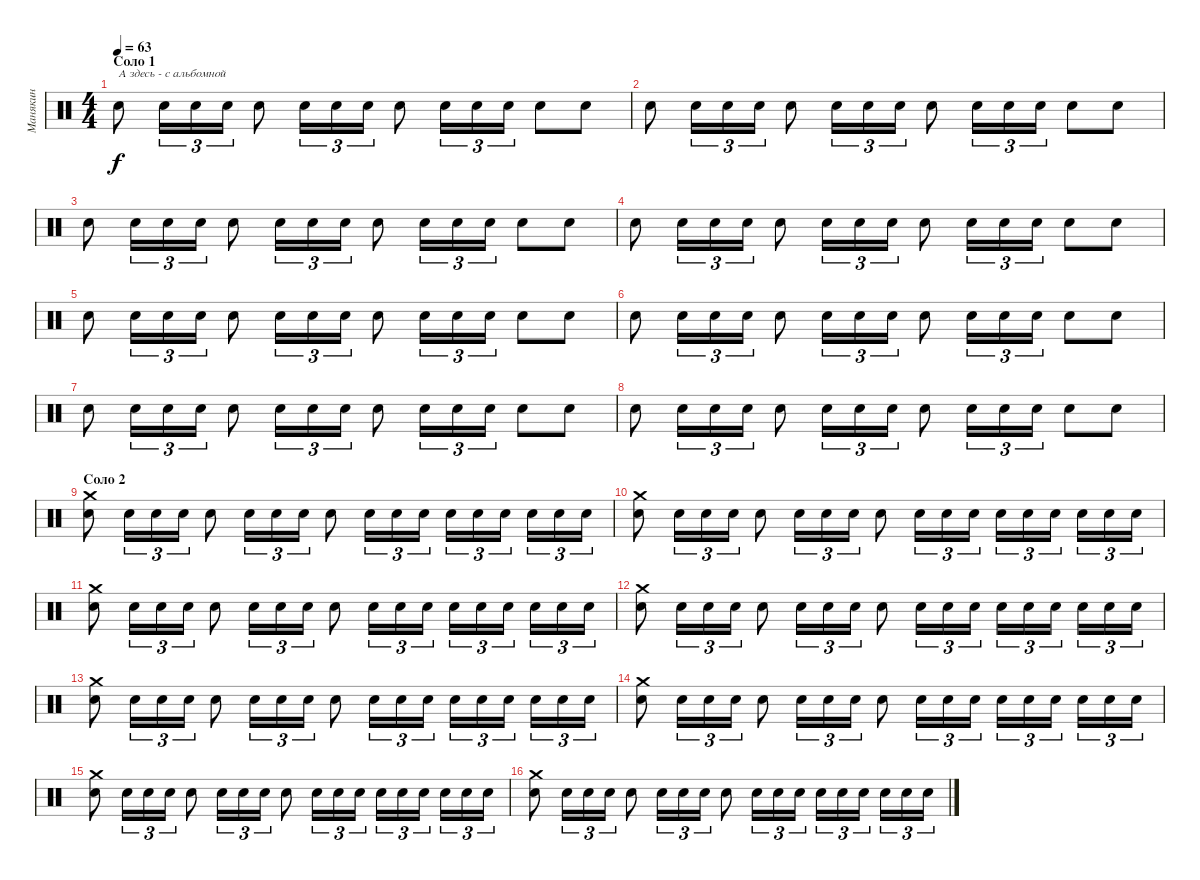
\track ("Манякин" "Манякин") {instrument percussion}
\staff {score}
\articulation defaults
\ts (4 4)
\section ("" "Соло 1")
\tempo 63
\clef neutral
\ks c "Snare (hit) 2".8{txt "А здесь - с альбомной" dy f volume 11} "Snare (hit) 2".16{tu (3 2)} "Snare (hit) 2".16{tu (3 2)} "Snare (hit) 2".16{tu (3 2)} "Snare (hit) 2".8 "Snare (hit) 2".16{tu (3 2)} "Snare (hit) 2".16{tu (3 2)} "Snare (hit) 2".16{tu (3 2)} "Snare (hit) 2".8 "Snare (hit) 2".16{tu (3 2)} "Snare (hit) 2".16{tu (3 2)} "Snare (hit) 2".16{tu (3 2)} "Snare (hit) 2".8 "Snare (hit) 2".8
|
"Snare (hit) 2".8 "Snare (hit) 2".16{tu (3 2)} "Snare (hit) 2".16{tu (3 2)} "Snare (hit) 2".16{tu (3 2)} "Snare (hit) 2".8 "Snare (hit) 2".16{tu (3 2)} "Snare (hit) 2".16{tu (3 2)} "Snare (hit) 2".16{tu (3 2)} "Snare (hit) 2".8 "Snare (hit) 2".16{tu (3 2)} "Snare (hit) 2".16{tu (3 2)} "Snare (hit) 2".16{tu (3 2)} "Snare (hit) 2".8 "Snare (hit) 2".8 |
"Snare (hit) 2".8 "Snare (hit) 2".16{tu (3 2)} "Snare (hit) 2".16{tu (3 2)} "Snare (hit) 2".16{tu (3 2)} "Snare (hit) 2".8 "Snare (hit) 2".16{tu (3 2)} "Snare (hit) 2".16{tu (3 2)} "Snare (hit) 2".16{tu (3 2)} "Snare (hit) 2".8 "Snare (hit) 2".16{tu (3 2)} "Snare (hit) 2".16{tu (3 2)} "Snare (hit) 2".16{tu (3 2)} "Snare (hit) 2".8 "Snare (hit) 2".8 |
"Snare (hit) 2".8 "Snare (hit) 2".16{tu (3 2)} "Snare (hit) 2".16{tu (3 2)} "Snare (hit) 2".16{tu (3 2)} "Snare (hit) 2".8 "Snare (hit) 2".16{tu (3 2)} "Snare (hit) 2".16{tu (3 2)} "Snare (hit) 2".16{tu (3 2)} "Snare (hit) 2".8 "Snare (hit) 2".16{tu (3 2)} "Snare (hit) 2".16{tu (3 2)} "Snare (hit) 2".16{tu (3 2)} "Snare (hit) 2".8 "Snare (hit) 2".8 |
"Snare (hit) 2".8 "Snare (hit) 2".16{tu (3 2)} "Snare (hit) 2".16{tu (3 2)} "Snare (hit) 2".16{tu (3 2)} "Snare (hit) 2".8 "Snare (hit) 2".16{tu (3 2)} "Snare (hit) 2".16{tu (3 2)} "Snare (hit) 2".16{tu (3 2)} "Snare (hit) 2".8 "Snare (hit) 2".16{tu (3 2)} "Snare (hit) 2".16{tu (3 2)} "Snare (hit) 2".16{tu (3 2)} "Snare (hit) 2".8 "Snare (hit) 2".8 |
"Snare (hit) 2".8 "Snare (hit) 2".16{tu (3 2)} "Snare (hit) 2".16{tu (3 2)} "Snare (hit) 2".16{tu (3 2)} "Snare (hit) 2".8 "Snare (hit) 2".16{tu (3 2)} "Snare (hit) 2".16{tu (3 2)} "Snare (hit) 2".16{tu (3 2)} "Snare (hit) 2".8 "Snare (hit) 2".16{tu (3 2)} "Snare (hit) 2".16{tu (3 2)} "Snare (hit) 2".16{tu (3 2)} "Snare (hit) 2".8 "Snare (hit) 2".8 |
"Snare (hit) 2".8 "Snare (hit) 2".16{tu (3 2)} "Snare (hit) 2".16{tu (3 2)} "Snare (hit) 2".16{tu (3 2)} "Snare (hit) 2".8 "Snare (hit) 2".16{tu (3 2)} "Snare (hit) 2".16{tu (3 2)} "Snare (hit) 2".16{tu (3 2)} "Snare (hit) 2".8 "Snare (hit) 2".16{tu (3 2)} "Snare (hit) 2".16{tu (3 2)} "Snare (hit) 2".16{tu (3 2)} "Snare (hit) 2".8 "Snare (hit) 2".8 |
"Snare (hit) 2".8 "Snare (hit) 2".16{tu (3 2)} "Snare (hit) 2".16{tu (3 2)} "Snare (hit) 2".16{tu (3 2)} "Snare (hit) 2".8 "Snare (hit) 2".16{tu (3 2)} "Snare (hit) 2".16{tu (3 2)} "Snare (hit) 2".16{tu (3 2)} "Snare (hit) 2".8 "Snare (hit) 2".16{tu (3 2)} "Snare (hit) 2".16{tu (3 2)} "Snare (hit) 2".16{tu (3 2)} "Snare (hit) 2".8 "Snare (hit) 2".8 |
\section ("" "Соло 2")
("Snare (hit) 2" "Crash medium (hit)").8 "Snare (hit) 2".16{tu (3 2)} "Snare (hit) 2".16{tu (3 2)} "Snare (hit) 2".16{tu (3 2)} "Snare (hit) 2".8 "Snare (hit) 2".16{tu (3 2)} "Snare (hit) 2".16{tu (3 2)} "Snare (hit) 2".16{tu (3 2)} "Snare (hit) 2".8 "Snare (hit) 2".16{tu (3 2)} "Snare (hit) 2".16{tu (3 2)} "Snare (hit) 2".16{tu (3 2)} "Snare (hit) 2".16{tu (3 2)} "Snare (hit) 2".16{tu (3 2)} "Snare (hit) 2".16{tu (3 2)} "Snare (hit) 2".16{tu (3 2)} "Snare (hit) 2".16{tu (3 2)} "Snare (hit) 2".16{tu (3 2)} |
("Snare (hit) 2" "Crash medium (hit)").8 "Snare (hit) 2".16{tu (3 2)} "Snare (hit) 2".16{tu (3 2)} "Snare (hit) 2".16{tu (3 2)} "Snare (hit) 2".8 "Snare (hit) 2".16{tu (3 2)} "Snare (hit) 2".16{tu (3 2)} "Snare (hit) 2".16{tu (3 2)} "Snare (hit) 2".8 "Snare (hit) 2".16{tu (3 2)} "Snare (hit) 2".16{tu (3 2)} "Snare (hit) 2".16{tu (3 2)} "Snare (hit) 2".16{tu (3 2)} "Snare (hit) 2".16{tu (3 2)} "Snare (hit) 2".16{tu (3 2)} "Snare (hit) 2".16{tu (3 2)} "Snare (hit) 2".16{tu (3 2)} "Snare (hit) 2".16{tu (3 2)} |
("Snare (hit) 2" "Crash medium (hit)").8 "Snare (hit) 2".16{tu (3 2)} "Snare (hit) 2".16{tu (3 2)} "Snare (hit) 2".16{tu (3 2)} "Snare (hit) 2".8 "Snare (hit) 2".16{tu (3 2)} "Snare (hit) 2".16{tu (3 2)} "Snare (hit) 2".16{tu (3 2)} "Snare (hit) 2".8 "Snare (hit) 2".16{tu (3 2)} "Snare (hit) 2".16{tu (3 2)} "Snare (hit) 2".16{tu (3 2)} "Snare (hit) 2".16{tu (3 2)} "Snare (hit) 2".16{tu (3 2)} "Snare (hit) 2".16{tu (3 2)} "Snare (hit) 2".16{tu (3 2)} "Snare (hit) 2".16{tu (3 2)} "Snare (hit) 2".16{tu (3 2)} |
("Snare (hit) 2" "Crash medium (hit)").8 "Snare (hit) 2".16{tu (3 2)} "Snare (hit) 2".16{tu (3 2)} "Snare (hit) 2".16{tu (3 2)} "Snare (hit) 2".8 "Snare (hit) 2".16{tu (3 2)} "Snare (hit) 2".16{tu (3 2)} "Snare (hit) 2".16{tu (3 2)} "Snare (hit) 2".8 "Snare (hit) 2".16{tu (3 2)} "Snare (hit) 2".16{tu (3 2)} "Snare (hit) 2".16{tu (3 2)} "Snare (hit) 2".16{tu (3 2)} "Snare (hit) 2".16{tu (3 2)} "Snare (hit) 2".16{tu (3 2)} "Snare (hit) 2".16{tu (3 2)} "Snare (hit) 2".16{tu (3 2)} "Snare (hit) 2".16{tu (3 2)} |
("Snare (hit) 2" "Crash medium (hit)").8 "Snare (hit) 2".16{tu (3 2)} "Snare (hit) 2".16{tu (3 2)} "Snare (hit) 2".16{tu (3 2)} "Snare (hit) 2".8 "Snare (hit) 2".16{tu (3 2)} "Snare (hit) 2".16{tu (3 2)} "Snare (hit) 2".16{tu (3 2)} "Snare (hit) 2".8 "Snare (hit) 2".16{tu (3 2)} "Snare (hit) 2".16{tu (3 2)} "Snare (hit) 2".16{tu (3 2)} "Snare (hit) 2".16{tu (3 2)} "Snare (hit) 2".16{tu (3 2)} "Snare (hit) 2".16{tu (3 2)} "Snare (hit) 2".16{tu (3 2)} "Snare (hit) 2".16{tu (3 2)} "Snare (hit) 2".16{tu (3 2)} |
("Snare (hit) 2" "Crash medium (hit)").8 "Snare (hit) 2".16{tu (3 2)} "Snare (hit) 2".16{tu (3 2)} "Snare (hit) 2".16{tu (3 2)} "Snare (hit) 2".8 "Snare (hit) 2".16{tu (3 2)} "Snare (hit) 2".16{tu (3 2)} "Snare (hit) 2".16{tu (3 2)} "Snare (hit) 2".8 "Snare (hit) 2".16{tu (3 2)} "Snare (hit) 2".16{tu (3 2)} "Snare (hit) 2".16{tu (3 2)} "Snare (hit) 2".16{tu (3 2)} "Snare (hit) 2".16{tu (3 2)} "Snare (hit) 2".16{tu (3 2)} "Snare (hit) 2".16{tu (3 2)} "Snare (hit) 2".16{tu (3 2)} "Snare (hit) 2".16{tu (3 2)} |
("Snare (hit) 2" "Crash medium (hit)").8 "Snare (hit) 2".16{tu (3 2)} "Snare (hit) 2".16{tu (3 2)} "Snare (hit) 2".16{tu (3 2)} "Snare (hit) 2".8 "Snare (hit) 2".16{tu (3 2)} "Snare (hit) 2".16{tu (3 2)} "Snare (hit) 2".16{tu (3 2)} "Snare (hit) 2".8 "Snare (hit) 2".16{tu (3 2)} "Snare (hit) 2".16{tu (3 2)} "Snare (hit) 2".16{tu (3 2)} "Snare (hit) 2".16{tu (3 2)} "Snare (hit) 2".16{tu (3 2)} "Snare (hit) 2".16{tu (3 2)} "Snare (hit) 2".16{tu (3 2)} "Snare (hit) 2".16{tu (3 2)} "Snare (hit) 2".16{tu (3 2)} |
("Snare (hit) 2" "Crash medium (hit)").8 "Snare (hit) 2".16{tu (3 2)} "Snare (hit) 2".16{tu (3 2)} "Snare (hit) 2".16{tu (3 2)} "Snare (hit) 2".8 "Snare (hit) 2".16{tu (3 2)} "Snare (hit) 2".16{tu (3 2)} "Snare (hit) 2".16{tu (3 2)} "Snare (hit) 2".8 "Snare (hit) 2".16{tu (3 2)} "Snare (hit) 2".16{tu (3 2)} "Snare (hit) 2".16{tu (3 2)} "Snare (hit) 2".16{tu (3 2)} "Snare (hit) 2".16{tu (3 2)} "Snare (hit) 2".16{tu (3 2)} "Snare (hit) 2".16{tu (3 2)} "Snare (hit) 2".16{tu (3 2)} "Snare (hit) 2".16{tu (3 2)}
